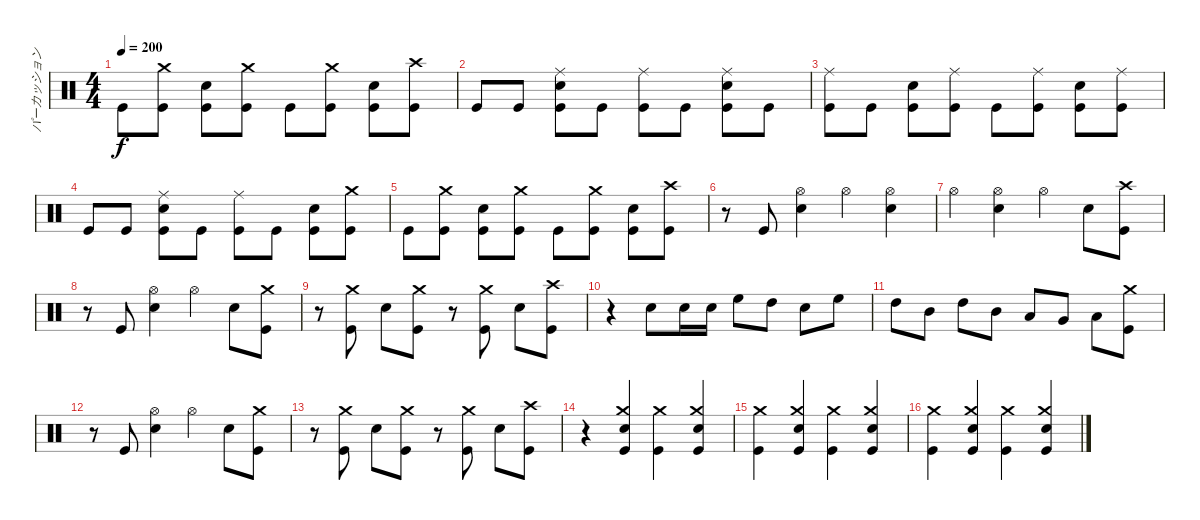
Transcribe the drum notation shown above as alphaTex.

\track ("パーカッション" "パーカッション") {instrument percussion}
\staff {score}
\articulation defaults
\ts (4 4)
\tempo 200
\clef neutral
\ks c "Kick (hit)".8{dy f}
("Kick (hit)" "Crash medium (hit)").8 ("Kick (hit)" "Snare (hit) 2").8 ("Kick (hit)" "Crash medium (hit)").8 "Kick (hit)".8 ("Kick (hit)" "Crash medium (hit)").8 ("Kick (hit)" "Snare (hit) 2").8 ("Kick (hit)" "Crash high (hit)").8 |
"Kick (hit)".8 "Kick (hit)".8 ("Kick (hit)" "Snare (hit) 2" "Ride (middle)").8 "Kick (hit)".8 ("Kick (hit)" "Ride (middle)").8 "Kick (hit)".8 ("Kick (hit)" "Snare (hit) 2" "Ride (middle)").8 "Kick (hit)".8 |
("Kick (hit)" "Ride (middle)").8 "Kick (hit)".8 ("Kick (hit)" "Snare (hit) 2").8 ("Kick (hit)" "Ride (middle)").8 "Kick (hit)".8 ("Kick (hit)" "Ride (middle)").8 ("Kick (hit)" "Snare (hit) 2").8 ("Kick (hit)" "Ride (middle)").8 |
"Kick (hit)".8 "Kick (hit)".8 ("Kick (hit)" "Ride (middle)" "Snare (hit) 2").8 "Kick (hit)".8 ("Ride (middle)" "Kick (hit)").8 "Kick (hit)".8 ("Kick (hit)" "Snare (hit) 2").8 ("Crash medium (hit)" "Kick (hit)").8 |
"Kick (hit)".8 ("Kick (hit)" "Crash medium (hit)").8 ("Kick (hit)" "Snare (hit) 2").8 ("Kick (hit)" "Crash medium (hit)").8 "Kick (hit)".8 ("Kick (hit)" "Crash medium (hit)").8 ("Kick (hit)" "Snare (hit) 2").8 ("Kick (hit)" "Crash high (hit)").8 |
r.8 "Kick (hit)".8 ("Hi-Hat (open)" "Snare (hit) 2").4 "Hi-Hat (open)".4 ("Hi-Hat (open)" "Snare (hit) 2").4 |
"Hi-Hat (open)".4 ("Snare (hit) 2" "Hi-Hat (open)").4 "Hi-Hat (open)".4 "Snare (hit) 2".8 ("Kick (hit)" "Crash high (hit)").8 |
r.8 "Kick (hit)".8 ("Hi-Hat (open)" "Snare (hit) 2").4 "Hi-Hat (open)".4 "Snare (hit) 2".8 ("Crash medium (hit)" "Kick (hit)").8 |
r.8 ("Kick (hit)" "Crash medium (hit)").8 "Snare (hit) 2".8 ("Kick (hit)" "Crash medium (hit)").8 r.8 ("Kick (hit)" "Crash medium (hit)").8 "Snare (hit) 2".8 ("Kick (hit)" "Crash high (hit)").8 |
r.4 "Snare (hit) 2".8 "Snare (hit) 2".16 "Snare (hit) 2".16 "High Floor Tom (hit)".8 "High Tom (hit)".8 "Snare (hit) 2".8 "High Floor Tom (hit)".8 |
"High Tom (hit)".8 "Mid Tom (hit)".8 "High Tom (hit)".8 "Mid Tom (hit)".8 "Low Tom (hit)".8 "Very Low Tom (hit)".8 "Low Floor Tom (hit)".8 ("Crash medium (hit)" "Kick (hit)").8 |
r.8 "Kick (hit)".8 ("Hi-Hat (open)" "Snare (hit) 2").4 "Hi-Hat (open)".4 "Snare (hit) 2".8 ("Crash medium (hit)" "Kick (hit)").8 |
r.8 ("Kick (hit)" "Crash medium (hit)").8 "Snare (hit) 2".8 ("Kick (hit)" "Crash medium (hit)").8 r.8 ("Kick (hit)" "Crash medium (hit)").8 "Snare (hit) 2".8 ("Kick (hit)" "Crash high (hit)").8 |
r.4 ("Crash medium (hit)" "Kick (hit)" "Snare (hit) 2").4 ("Kick (hit)" "Crash medium (hit)").4 ("Crash medium (hit)" "Kick (hit)" "Snare (hit) 2").4 |
("Kick (hit)" "Crash medium (hit)").4 ("Crash medium (hit)" "Kick (hit)" "Snare (hit) 2").4 ("Kick (hit)" "Crash medium (hit)").4 ("Crash medium (hit)" "Kick (hit)" "Snare (hit) 2").4 |
("Kick (hit)" "Crash medium (hit)").4 ("Crash medium (hit)" "Kick (hit)" "Snare (hit) 2").4 ("Kick (hit)" "Crash medium (hit)").4 ("Crash medium (hit)" "Kick (hit)" "Snare (hit) 2").4
